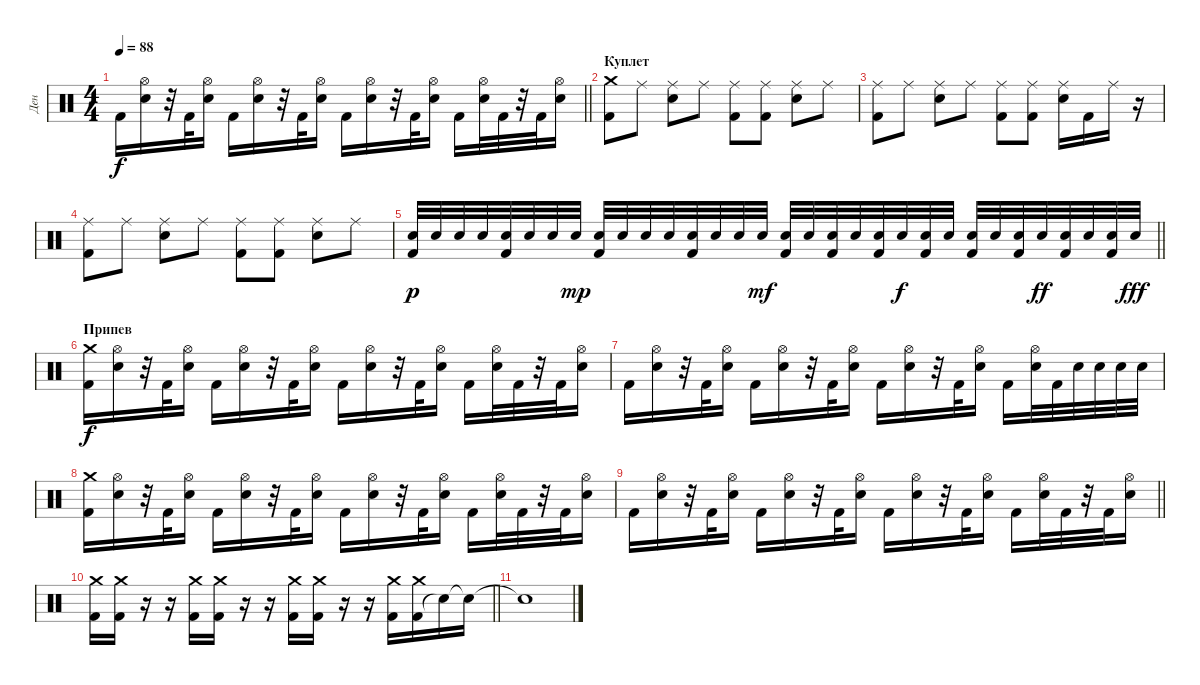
\track ("Ден" "Ден") {instrument percussion}
\staff {score}
\articulation defaults
\ts (4 4)
\tempo 88
\clef neutral
\barLineRight lightlight
\ks c "Kick (hit) 2".16{dy f}
("Electric Snare (hit)" "Hi-Hat (open)").16 r.32 "Kick (hit) 2".32 ("Electric Snare (hit)" "Hi-Hat (open)").16 "Kick (hit) 2".16 ("Electric Snare (hit)" "Hi-Hat (open)").16 r.32 "Kick (hit) 2".32 ("Electric Snare (hit)" "Hi-Hat (open)").16 "Kick (hit) 2".16 ("Electric Snare (hit)" "Hi-Hat (open)").16 r.32 "Kick (hit) 2".32 ("Electric Snare (hit)" "Hi-Hat (open)").16 "Kick (hit) 2".16 ("Electric Snare (hit)" "Hi-Hat (open)").32 "Kick (hit) 2".32 r.32 "Kick (hit) 2".32 ("Electric Snare (hit)" "Hi-Hat (open)").16 |
\section ("" "Куплет")
("Kick (hit) 2" "Crash medium (hit)").8 "Ride (middle)".8 ("Electric Snare (hit)" "Ride (middle)").8 "Ride (middle)".8 ("Kick (hit) 2" "Ride (middle)").8 ("Kick (hit) 2" "Ride (middle)").8 ("Electric Snare (hit)" "Ride (middle)").8 "Ride (middle)".8 |
("Kick (hit) 2" "Ride (middle)").8 "Ride (middle)".8 ("Electric Snare (hit)" "Ride (middle)").8 "Ride (middle)".8 ("Kick (hit) 2" "Ride (middle)").8 ("Kick (hit) 2" "Ride (middle)").8 ("Electric Snare (hit)" "Ride (middle)").16 "Kick (hit) 2".16 "Ride (middle)".16 r.16 |
("Kick (hit) 2" "Ride (middle)").8 "Ride (middle)".8 ("Electric Snare (hit)" "Ride (middle)").8 "Ride (middle)".8 ("Kick (hit) 2" "Ride (middle)").8 ("Kick (hit) 2" "Ride (middle)").8 ("Electric Snare (hit)" "Ride (middle)").8 "Ride (middle)".8 |
\barLineRight lightlight
("Electric Snare (hit)" "Kick (hit) 2").32{dy p} "Electric Snare (hit)".32 "Electric Snare (hit)".32 "Electric Snare (hit)".32 ("Electric Snare (hit)" "Kick (hit) 2").32 "Electric Snare (hit)".32 "Electric Snare (hit)".32 "Electric Snare (hit)".32{dy mp} ("Electric Snare (hit)" "Kick (hit) 2").32 "Electric Snare (hit)".32 "Electric Snare (hit)".32 "Electric Snare (hit)".32 ("Electric Snare (hit)" "Kick (hit) 2").32 "Electric Snare (hit)".32 "Electric Snare (hit)".32 "Electric Snare (hit)".32{dy mf} ("Electric Snare (hit)" "Kick (hit) 2").32 "Electric Snare (hit)".32 ("Electric Snare (hit)" "Kick (hit) 2").32 "Electric Snare (hit)".32 ("Electric Snare (hit)" "Kick (hit) 2").32 "Electric Snare (hit)".32{dy f} ("Electric Snare (hit)" "Kick (hit) 2").32 "Electric Snare (hit)".32 ("Electric Snare (hit)" "Kick (hit) 2").32 "Electric Snare (hit)".32 ("Electric Snare (hit)" "Kick (hit) 2").32 "Electric Snare (hit)".32{dy ff} ("Electric Snare (hit)" "Kick (hit) 2").32 "Electric Snare (hit)".32 ("Electric Snare (hit)" "Kick (hit) 2").32 "Electric Snare (hit)".32{dy fff} |
\section ("" "Припев")
("Kick (hit) 2" "Crash medium (hit)").16{dy f} ("Electric Snare (hit)" "Hi-Hat (open)").16 r.32 "Kick (hit) 2".32 ("Electric Snare (hit)" "Hi-Hat (open)").16 "Kick (hit) 2".16 ("Electric Snare (hit)" "Hi-Hat (open)").16 r.32 "Kick (hit) 2".32 ("Electric Snare (hit)" "Hi-Hat (open)").16 "Kick (hit) 2".16 ("Electric Snare (hit)" "Hi-Hat (open)").16 r.32 "Kick (hit) 2".32 ("Electric Snare (hit)" "Hi-Hat (open)").16 "Kick (hit) 2".16 ("Electric Snare (hit)" "Hi-Hat (open)").32 "Kick (hit) 2".32 r.32 "Kick (hit) 2".32 ("Electric Snare (hit)" "Hi-Hat (open)").16 |
"Kick (hit) 2".16 ("Electric Snare (hit)" "Hi-Hat (open)").16 r.32 "Kick (hit) 2".32 ("Electric Snare (hit)" "Hi-Hat (open)").16 "Kick (hit) 2".16 ("Electric Snare (hit)" "Hi-Hat (open)").16 r.32 "Kick (hit) 2".32 ("Electric Snare (hit)" "Hi-Hat (open)").16 "Kick (hit) 2".16 ("Electric Snare (hit)" "Hi-Hat (open)").16 r.32 "Kick (hit) 2".32 ("Electric Snare (hit)" "Hi-Hat (open)").16 "Kick (hit) 2".16 ("Electric Snare (hit)" "Hi-Hat (open)").32 "Kick (hit) 2".32 "Electric Snare (hit)".32 "Electric Snare (hit)".32 "Electric Snare (hit)".32 "Electric Snare (hit)".32 |
("Kick (hit) 2" "Crash medium (hit)").16 ("Electric Snare (hit)" "Hi-Hat (open)").16 r.32 "Kick (hit) 2".32 ("Electric Snare (hit)" "Hi-Hat (open)").16 "Kick (hit) 2".16 ("Electric Snare (hit)" "Hi-Hat (open)").16 r.32 "Kick (hit) 2".32 ("Electric Snare (hit)" "Hi-Hat (open)").16 "Kick (hit) 2".16 ("Electric Snare (hit)" "Hi-Hat (open)").16 r.32 "Kick (hit) 2".32 ("Electric Snare (hit)" "Hi-Hat (open)").16 "Kick (hit) 2".16 ("Electric Snare (hit)" "Hi-Hat (open)").32 "Kick (hit) 2".32 r.32 "Kick (hit) 2".32 ("Electric Snare (hit)" "Hi-Hat (open)").16 |
\barLineRight lightlight "Kick (hit) 2".16
("Electric Snare (hit)" "Hi-Hat (open)").16 r.32 "Kick (hit) 2".32 ("Electric Snare (hit)" "Hi-Hat (open)").16 "Kick (hit) 2".16 ("Electric Snare (hit)" "Hi-Hat (open)").16 r.32 "Kick (hit) 2".32 ("Electric Snare (hit)" "Hi-Hat (open)").16 "Kick (hit) 2".16 ("Electric Snare (hit)" "Hi-Hat (open)").16 r.32 "Kick (hit) 2".32 ("Electric Snare (hit)" "Hi-Hat (open)").16 "Kick (hit) 2".16 ("Electric Snare (hit)" "Hi-Hat (open)").32 "Kick (hit) 2".32 r.32 "Kick (hit) 2".32 ("Electric Snare (hit)" "Hi-Hat (open)").16 |
\barLineRight lightlight
("Kick (hit) 2" "Crash medium (hit)").16 ("Kick (hit) 2" "Crash medium (hit)").16 r.16 r.16 ("Kick (hit) 2" "Crash medium (hit)").16 ("Kick (hit) 2" "Crash medium (hit)").16 r.16 r.16 ("Kick (hit) 2" "Crash medium (hit)").16 ("Kick (hit) 2" "Crash medium (hit)").16 r.16 r.16 ("Kick (hit) 2" "Crash medium (hit)").16 ("Kick (hit) 2" "Crash medium (hit)").16 "Snare (hit)"{t}.16 "Snare (hit)"{t}.16 |
"Snare (hit)"{t}.1
